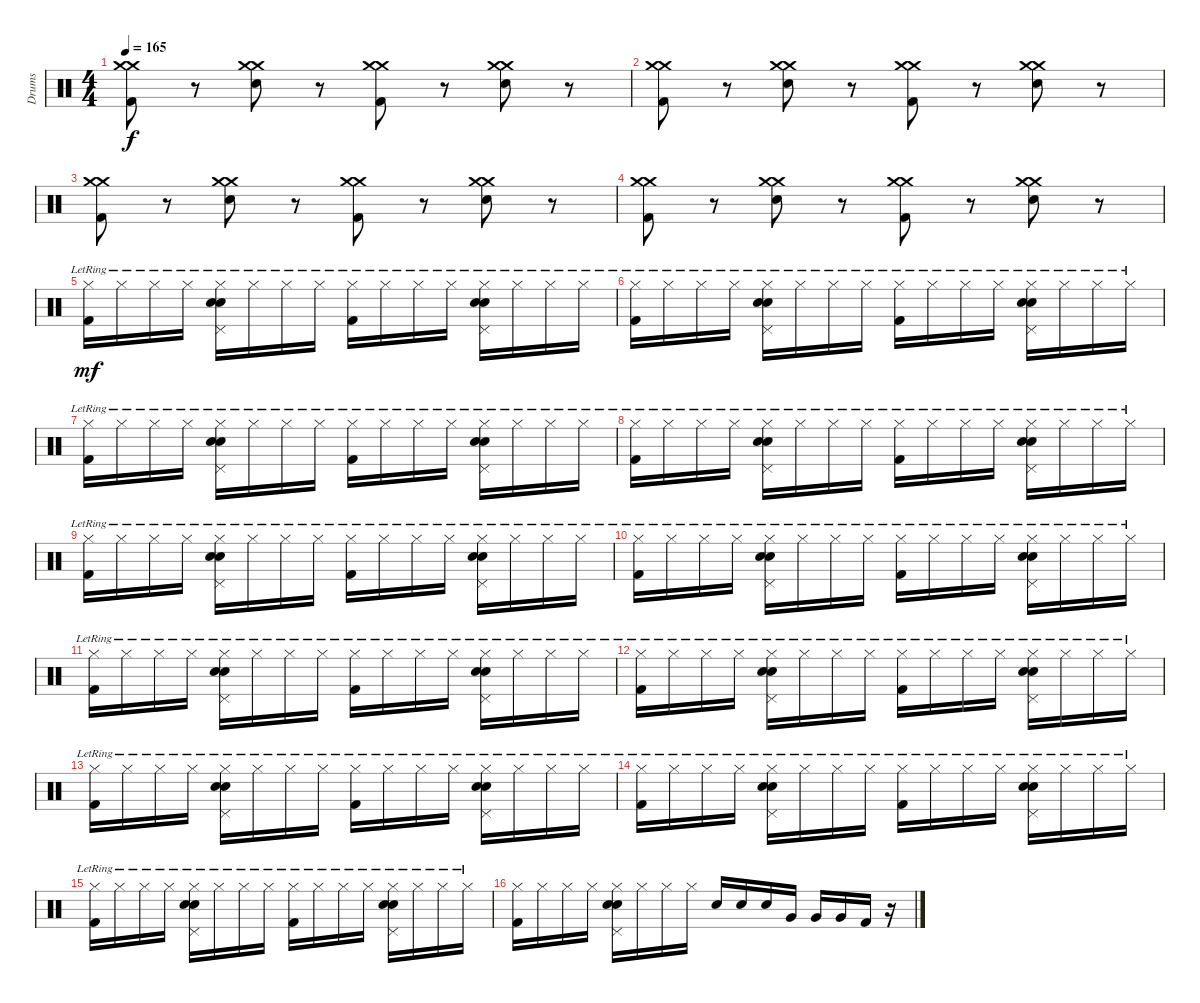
\track ("Drums" "Drums") {instrument percussion}
\staff {score}
\articulation defaults
\ts (4 4)
\tempo 165
\clef neutral
\ks c
("Crash medium (hit)" "Crash medium (hit)" "Kick (hit) 2").8{dy f} r.8 ("Crash medium (hit)" "Crash medium (hit)" "Electric Snare (hit)").8 r.8 ("Crash medium (hit)" "Crash medium (hit)" "Kick (hit) 2").8 r.8 ("Crash medium (hit)" "Crash medium (hit)" "Electric Snare (hit)").8 r.8 |
("Crash medium (hit)" "Crash medium (hit)" "Kick (hit) 2").8 r.8 ("Crash medium (hit)" "Crash medium (hit)" "Electric Snare (hit)").8 r.8 ("Crash medium (hit)" "Crash medium (hit)" "Kick (hit) 2").8 r.8 ("Crash medium (hit)" "Crash medium (hit)" "Electric Snare (hit)").8 r.8 |
("Crash medium (hit)" "Crash medium (hit)" "Kick (hit) 2").8 r.8 ("Crash medium (hit)" "Crash medium (hit)" "Electric Snare (hit)").8 r.8 ("Crash medium (hit)" "Crash medium (hit)" "Kick (hit) 2").8 r.8 ("Crash medium (hit)" "Crash medium (hit)" "Electric Snare (hit)").8 r.8 |
("Crash medium (hit)" "Crash medium (hit)" "Kick (hit) 2").8 r.8 ("Crash medium (hit)" "Crash medium (hit)" "Electric Snare (hit)").8 r.8 ("Crash medium (hit)" "Crash medium (hit)" "Kick (hit) 2").8 r.8 ("Crash medium (hit)" "Crash medium (hit)" "Electric Snare (hit)").8 r.8 |
("Hi-Hat (closed)"{lr} "Kick (hit) 2").16{dy mf} "Hi-Hat (closed)"{lr}.16 "Hi-Hat (closed)"{lr}.16 "Hi-Hat (closed)"{lr}.16 ("Hi-Hat (closed)"{lr} "Pedal Hi-Hat (hit)" "Electric Snare (hit)" "Electric Snare (hit)").16 "Hi-Hat (closed)"{lr}.16 "Hi-Hat (closed)"{lr}.16 "Hi-Hat (closed)"{lr}.16 ("Hi-Hat (closed)"{lr} "Kick (hit) 2").16 "Hi-Hat (closed)"{lr}.16 "Hi-Hat (closed)"{lr}.16 "Hi-Hat (closed)"{lr}.16 ("Hi-Hat (closed)"{lr} "Pedal Hi-Hat (hit)" "Electric Snare (hit)" "Electric Snare (hit)").16 "Hi-Hat (closed)"{lr}.16 "Hi-Hat (closed)"{lr}.16 "Hi-Hat (closed)"{lr}.16 |
("Hi-Hat (closed)"{lr} "Kick (hit) 2").16 "Hi-Hat (closed)"{lr}.16 "Hi-Hat (closed)"{lr}.16 "Hi-Hat (closed)"{lr}.16 ("Hi-Hat (closed)"{lr} "Pedal Hi-Hat (hit)" "Electric Snare (hit)" "Electric Snare (hit)").16 "Hi-Hat (closed)"{lr}.16 "Hi-Hat (closed)"{lr}.16 "Hi-Hat (closed)"{lr}.16 ("Hi-Hat (closed)"{lr} "Kick (hit) 2").16 "Hi-Hat (closed)"{lr}.16 "Hi-Hat (closed)"{lr}.16 "Hi-Hat (closed)"{lr}.16 ("Hi-Hat (closed)"{lr} "Pedal Hi-Hat (hit)" "Electric Snare (hit)" "Electric Snare (hit)").16 "Hi-Hat (closed)"{lr}.16 "Hi-Hat (closed)"{lr}.16 "Hi-Hat (closed)"{lr}.16 |
("Hi-Hat (closed)"{lr} "Kick (hit) 2").16 "Hi-Hat (closed)"{lr}.16 "Hi-Hat (closed)"{lr}.16 "Hi-Hat (closed)"{lr}.16 ("Hi-Hat (closed)"{lr} "Pedal Hi-Hat (hit)" "Electric Snare (hit)" "Electric Snare (hit)").16 "Hi-Hat (closed)"{lr}.16 "Hi-Hat (closed)"{lr}.16 "Hi-Hat (closed)"{lr}.16 ("Hi-Hat (closed)"{lr} "Kick (hit) 2").16 "Hi-Hat (closed)"{lr}.16 "Hi-Hat (closed)"{lr}.16 "Hi-Hat (closed)"{lr}.16 ("Hi-Hat (closed)"{lr} "Pedal Hi-Hat (hit)" "Electric Snare (hit)" "Electric Snare (hit)").16 "Hi-Hat (closed)"{lr}.16 "Hi-Hat (closed)"{lr}.16 "Hi-Hat (closed)"{lr}.16 |
("Hi-Hat (closed)"{lr} "Kick (hit) 2").16 "Hi-Hat (closed)"{lr}.16 "Hi-Hat (closed)"{lr}.16 "Hi-Hat (closed)"{lr}.16 ("Hi-Hat (closed)"{lr} "Pedal Hi-Hat (hit)" "Electric Snare (hit)" "Electric Snare (hit)").16 "Hi-Hat (closed)"{lr}.16 "Hi-Hat (closed)"{lr}.16 "Hi-Hat (closed)"{lr}.16 ("Hi-Hat (closed)"{lr} "Kick (hit) 2").16 "Hi-Hat (closed)"{lr}.16 "Hi-Hat (closed)"{lr}.16 "Hi-Hat (closed)"{lr}.16 ("Hi-Hat (closed)"{lr} "Pedal Hi-Hat (hit)" "Electric Snare (hit)" "Electric Snare (hit)").16 "Hi-Hat (closed)"{lr}.16 "Hi-Hat (closed)"{lr}.16 "Hi-Hat (closed)"{lr}.16 |
("Hi-Hat (closed)"{lr} "Kick (hit) 2").16 "Hi-Hat (closed)"{lr}.16 "Hi-Hat (closed)"{lr}.16 "Hi-Hat (closed)"{lr}.16 ("Hi-Hat (closed)"{lr} "Pedal Hi-Hat (hit)" "Electric Snare (hit)" "Electric Snare (hit)").16 "Hi-Hat (closed)"{lr}.16 "Hi-Hat (closed)"{lr}.16 "Hi-Hat (closed)"{lr}.16 ("Hi-Hat (closed)"{lr} "Kick (hit) 2").16 "Hi-Hat (closed)"{lr}.16 "Hi-Hat (closed)"{lr}.16 "Hi-Hat (closed)"{lr}.16 ("Hi-Hat (closed)"{lr} "Pedal Hi-Hat (hit)" "Electric Snare (hit)" "Electric Snare (hit)").16 "Hi-Hat (closed)"{lr}.16 "Hi-Hat (closed)"{lr}.16 "Hi-Hat (closed)"{lr}.16 |
("Hi-Hat (closed)"{lr} "Kick (hit) 2").16 "Hi-Hat (closed)"{lr}.16 "Hi-Hat (closed)"{lr}.16 "Hi-Hat (closed)"{lr}.16 ("Hi-Hat (closed)"{lr} "Pedal Hi-Hat (hit)" "Electric Snare (hit)" "Electric Snare (hit)").16 "Hi-Hat (closed)"{lr}.16 "Hi-Hat (closed)"{lr}.16 "Hi-Hat (closed)"{lr}.16 ("Hi-Hat (closed)"{lr} "Kick (hit) 2").16 "Hi-Hat (closed)"{lr}.16 "Hi-Hat (closed)"{lr}.16 "Hi-Hat (closed)"{lr}.16 ("Hi-Hat (closed)"{lr} "Pedal Hi-Hat (hit)" "Electric Snare (hit)" "Electric Snare (hit)").16 "Hi-Hat (closed)"{lr}.16 "Hi-Hat (closed)"{lr}.16 "Hi-Hat (closed)"{lr}.16 |
("Hi-Hat (closed)"{lr} "Kick (hit) 2").16 "Hi-Hat (closed)"{lr}.16 "Hi-Hat (closed)"{lr}.16 "Hi-Hat (closed)"{lr}.16 ("Hi-Hat (closed)"{lr} "Pedal Hi-Hat (hit)" "Electric Snare (hit)" "Electric Snare (hit)").16 "Hi-Hat (closed)"{lr}.16 "Hi-Hat (closed)"{lr}.16 "Hi-Hat (closed)"{lr}.16 ("Hi-Hat (closed)"{lr} "Kick (hit) 2").16 "Hi-Hat (closed)"{lr}.16 "Hi-Hat (closed)"{lr}.16 "Hi-Hat (closed)"{lr}.16 ("Hi-Hat (closed)"{lr} "Pedal Hi-Hat (hit)" "Electric Snare (hit)" "Electric Snare (hit)").16 "Hi-Hat (closed)"{lr}.16 "Hi-Hat (closed)"{lr}.16 "Hi-Hat (closed)"{lr}.16 |
("Hi-Hat (closed)"{lr} "Kick (hit) 2").16 "Hi-Hat (closed)"{lr}.16 "Hi-Hat (closed)"{lr}.16 "Hi-Hat (closed)"{lr}.16 ("Hi-Hat (closed)"{lr} "Pedal Hi-Hat (hit)" "Electric Snare (hit)" "Electric Snare (hit)").16 "Hi-Hat (closed)"{lr}.16 "Hi-Hat (closed)"{lr}.16 "Hi-Hat (closed)"{lr}.16 ("Hi-Hat (closed)"{lr} "Kick (hit) 2").16 "Hi-Hat (closed)"{lr}.16 "Hi-Hat (closed)"{lr}.16 "Hi-Hat (closed)"{lr}.16 ("Hi-Hat (closed)"{lr} "Pedal Hi-Hat (hit)" "Electric Snare (hit)" "Electric Snare (hit)").16 "Hi-Hat (closed)"{lr}.16 "Hi-Hat (closed)"{lr}.16 "Hi-Hat (closed)"{lr}.16 |
("Hi-Hat (closed)"{lr} "Kick (hit) 2").16 "Hi-Hat (closed)"{lr}.16 "Hi-Hat (closed)"{lr}.16 "Hi-Hat (closed)"{lr}.16 ("Hi-Hat (closed)"{lr} "Pedal Hi-Hat (hit)" "Electric Snare (hit)" "Electric Snare (hit)").16 "Hi-Hat (closed)"{lr}.16 "Hi-Hat (closed)"{lr}.16 "Hi-Hat (closed)"{lr}.16 ("Hi-Hat (closed)"{lr} "Kick (hit) 2").16 "Hi-Hat (closed)"{lr}.16 "Hi-Hat (closed)"{lr}.16 "Hi-Hat (closed)"{lr}.16 ("Hi-Hat (closed)"{lr} "Pedal Hi-Hat (hit)" "Electric Snare (hit)" "Electric Snare (hit)").16 "Hi-Hat (closed)"{lr}.16 "Hi-Hat (closed)"{lr}.16 "Hi-Hat (closed)"{lr}.16 |
("Hi-Hat (closed)"{lr} "Kick (hit) 2").16 "Hi-Hat (closed)"{lr}.16 "Hi-Hat (closed)"{lr}.16 "Hi-Hat (closed)"{lr}.16 ("Hi-Hat (closed)"{lr} "Pedal Hi-Hat (hit)" "Electric Snare (hit)" "Electric Snare (hit)").16 "Hi-Hat (closed)"{lr}.16 "Hi-Hat (closed)"{lr}.16 "Hi-Hat (closed)"{lr}.16 ("Hi-Hat (closed)"{lr} "Kick (hit) 2").16 "Hi-Hat (closed)"{lr}.16 "Hi-Hat (closed)"{lr}.16 "Hi-Hat (closed)"{lr}.16 ("Hi-Hat (closed)"{lr} "Pedal Hi-Hat (hit)" "Electric Snare (hit)" "Electric Snare (hit)").16 "Hi-Hat (closed)"{lr}.16 "Hi-Hat (closed)"{lr}.16 "Hi-Hat (closed)"{lr}.16 |
("Hi-Hat (closed)"{lr} "Kick (hit) 2").16 "Hi-Hat (closed)"{lr}.16 "Hi-Hat (closed)"{lr}.16 "Hi-Hat (closed)"{lr}.16 ("Hi-Hat (closed)"{lr} "Pedal Hi-Hat (hit)" "Electric Snare (hit)" "Electric Snare (hit)").16 "Hi-Hat (closed)"{lr}.16 "Hi-Hat (closed)"{lr}.16 "Hi-Hat (closed)"{lr}.16 ("Hi-Hat (closed)"{lr} "Kick (hit) 2").16 "Hi-Hat (closed)"{lr}.16 "Hi-Hat (closed)"{lr}.16 "Hi-Hat (closed)"{lr}.16 ("Hi-Hat (closed)"{lr} "Pedal Hi-Hat (hit)" "Electric Snare (hit)" "Electric Snare (hit)").16 "Hi-Hat (closed)"{lr}.16 "Hi-Hat (closed)"{lr}.16 "Hi-Hat (closed)"{lr}.16 |
("Hi-Hat (closed)" "Kick (hit) 2").16 "Hi-Hat (closed)".16 "Hi-Hat (closed)".16 "Hi-Hat (closed)".16 ("Hi-Hat (closed)" "Pedal Hi-Hat (hit)" "Electric Snare (hit)" "Electric Snare (hit)").16 "Hi-Hat (closed)".16 "Hi-Hat (closed)".16 "Hi-Hat (closed)".16 "Electric Snare (hit)".16 "Electric Snare (hit)".16 "Electric Snare (hit)".16 "Very Low Tom (hit)".16 "Very Low Tom (hit)".16 "Very Low Tom (hit)".16 "Kick (hit) 2".16 r.16
